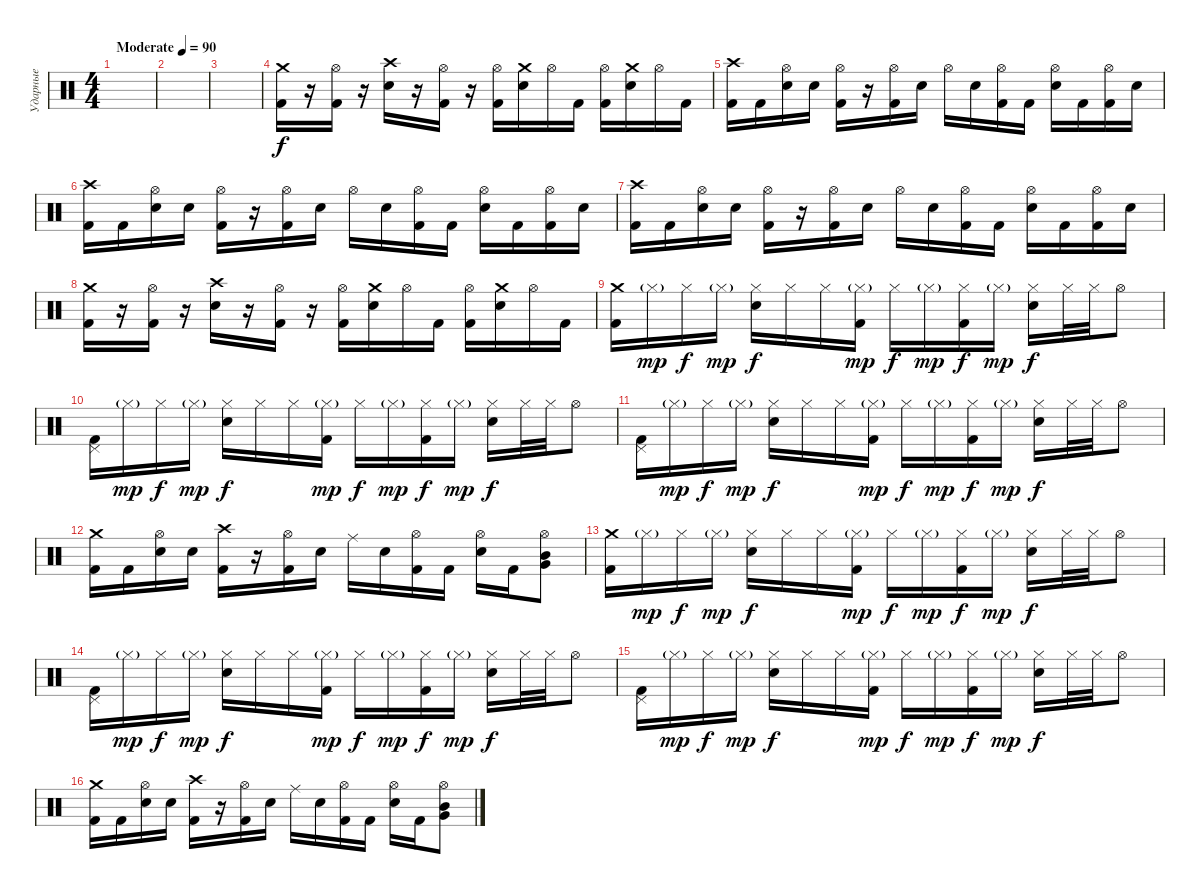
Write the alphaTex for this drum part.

\track ("Ударные" "Ударные") {instrument percussion}
\staff {score}
\articulation defaults
\ts (4 4)
\tempo (90 "Moderate")
\clef neutral
\ks c
|
|
|
("Crash medium (hit)" "Kick (hit) 2").16 r.16 ("Hi-Hat (open)" "Kick (hit) 2").16 r.16 ("Crash high (hit)" "Snare (hit) 2").16 r.16 ("Hi-Hat (open)" "Kick (hit) 2").16 r.16 ("Hi-Hat (open)" "Kick (hit) 2").16 ("Crash medium (hit)" "Snare (hit) 2").16 "Hi-Hat (open)".16 "Kick (hit) 2".16 ("Hi-Hat (open)" "Kick (hit) 2").16 ("Crash medium (hit)" "Snare (hit) 2").16 "Hi-Hat (open)".16 "Kick (hit) 2".16 |
("Crash high (hit)" "Kick (hit) 2").16 "Kick (hit) 2".16 ("Hi-Hat (open)" "Snare (hit) 2").16 "Snare (hit) 2".16 ("Hi-Hat (open)" "Kick (hit) 2").16 r.16 ("Hi-Hat (open)" "Kick (hit) 2").16 "Snare (hit) 2".16 "Hi-Hat (open)".16 "Snare (hit) 2".16 ("Hi-Hat (open)" "Kick (hit) 2").16 "Kick (hit) 2".16 ("Hi-Hat (open)" "Snare (hit) 2").16 "Kick (hit) 2".16 ("Hi-Hat (open)" "Kick (hit) 2").16 "Snare (hit) 2".16 |
("Crash high (hit)" "Kick (hit) 2").16 "Kick (hit) 2".16 ("Hi-Hat (open)" "Snare (hit) 2").16 "Snare (hit) 2".16 ("Hi-Hat (open)" "Kick (hit) 2").16 r.16 ("Hi-Hat (open)" "Kick (hit) 2").16 "Snare (hit) 2".16 "Hi-Hat (open)".16 "Snare (hit) 2".16 ("Hi-Hat (open)" "Kick (hit) 2").16 "Kick (hit) 2".16 ("Hi-Hat (open)" "Snare (hit) 2").16 "Kick (hit) 2".16 ("Hi-Hat (open)" "Kick (hit) 2").16 "Snare (hit) 2".16 |
("Crash high (hit)" "Kick (hit) 2").16 "Kick (hit) 2".16 ("Hi-Hat (open)" "Snare (hit) 2").16 "Snare (hit) 2".16 ("Hi-Hat (open)" "Kick (hit) 2").16 r.16 ("Hi-Hat (open)" "Kick (hit) 2").16 "Snare (hit) 2".16 "Hi-Hat (open)".16 "Snare (hit) 2".16 ("Hi-Hat (open)" "Kick (hit) 2").16 "Kick (hit) 2".16 ("Hi-Hat (open)" "Snare (hit) 2").16 "Kick (hit) 2".16 ("Hi-Hat (open)" "Kick (hit) 2").16 "Snare (hit) 2".16 |
("Crash medium (hit)" "Kick (hit) 2").16 r.16 ("Hi-Hat (open)" "Kick (hit) 2").16 r.16 ("Crash high (hit)" "Snare (hit) 2").16 r.16 ("Hi-Hat (open)" "Kick (hit) 2").16 r.16 ("Hi-Hat (open)" "Kick (hit) 2").16 ("Crash medium (hit)" "Snare (hit) 2").16 "Hi-Hat (open)".16 "Kick (hit) 2".16 ("Hi-Hat (open)" "Kick (hit) 2").16 ("Crash medium (hit)" "Snare (hit) 2").16 "Hi-Hat (open)".16 "Kick (hit) 2".16 |
("Crash medium (hit)" "Kick (hit) 2").16 "Hi-Hat (closed)"{g}.16{dy mp} "Hi-Hat (closed)".16{dy f} "Hi-Hat (closed)"{g}.16{dy mp} ("Hi-Hat (closed)" "Snare (hit) 2").16{dy f} "Hi-Hat (closed)".16 "Hi-Hat (closed)".16 ("Hi-Hat (closed)"{g} "Kick (hit) 2").16{dy mp} "Hi-Hat (closed)".16{dy f} "Hi-Hat (closed)"{g}.16{dy mp} ("Hi-Hat (closed)" "Kick (hit) 2").16{dy f} "Hi-Hat (closed)"{g}.16{dy mp} ("Hi-Hat (closed)" "Snare (hit) 2").16{dy f} "Hi-Hat (closed)".32 "Hi-Hat (closed)".32 "Hi-Hat (open)".8 |
("Pedal Hi-Hat (hit)" "Kick (hit) 2").16 "Hi-Hat (closed)"{g}.16{dy mp} "Hi-Hat (closed)".16{dy f} "Hi-Hat (closed)"{g}.16{dy mp} ("Hi-Hat (closed)" "Snare (hit) 2").16{dy f} "Hi-Hat (closed)".16 "Hi-Hat (closed)".16 ("Hi-Hat (closed)"{g} "Kick (hit) 2").16{dy mp} "Hi-Hat (closed)".16{dy f} "Hi-Hat (closed)"{g}.16{dy mp} ("Hi-Hat (closed)" "Kick (hit) 2").16{dy f} "Hi-Hat (closed)"{g}.16{dy mp} ("Hi-Hat (closed)" "Snare (hit) 2").16{dy f} "Hi-Hat (closed)".32 "Hi-Hat (closed)".32 "Hi-Hat (open)".8 |
("Pedal Hi-Hat (hit)" "Kick (hit) 2").16 "Hi-Hat (closed)"{g}.16{dy mp} "Hi-Hat (closed)".16{dy f} "Hi-Hat (closed)"{g}.16{dy mp} ("Hi-Hat (closed)" "Snare (hit) 2").16{dy f} "Hi-Hat (closed)".16 "Hi-Hat (closed)".16 ("Hi-Hat (closed)"{g} "Kick (hit) 2").16{dy mp} "Hi-Hat (closed)".16{dy f} "Hi-Hat (closed)"{g}.16{dy mp} ("Hi-Hat (closed)" "Kick (hit) 2").16{dy f} "Hi-Hat (closed)"{g}.16{dy mp} ("Hi-Hat (closed)" "Snare (hit) 2").16{dy f} "Hi-Hat (closed)".32 "Hi-Hat (closed)".32 "Hi-Hat (open)".8 |
("Crash medium (hit)" "Kick (hit) 2").16 "Kick (hit) 2".16 ("Hi-Hat (open)" "Snare (hit) 2").16 "Snare (hit) 2".16 ("Crash high (hit)" "Kick (hit) 2").16 r.16 ("Hi-Hat (open)" "Kick (hit) 2").16 "Snare (hit) 2".16 "Ride (middle)".16 "Snare (hit) 2".16 ("Hi-Hat (open)" "Kick (hit) 2").16 "Kick (hit) 2".16 ("Hi-Hat (open)" "Snare (hit) 2").16 "Kick (hit) 2".16 ("Hi-Hat (open)" "Very Low Tom (hit)" "Mid Tom (hit)").8 |
("Crash medium (hit)" "Kick (hit) 2").16 "Hi-Hat (closed)"{g}.16{dy mp} "Hi-Hat (closed)".16{dy f} "Hi-Hat (closed)"{g}.16{dy mp} ("Hi-Hat (closed)" "Snare (hit) 2").16{dy f} "Hi-Hat (closed)".16 "Hi-Hat (closed)".16 ("Hi-Hat (closed)"{g} "Kick (hit) 2").16{dy mp} "Hi-Hat (closed)".16{dy f} "Hi-Hat (closed)"{g}.16{dy mp} ("Hi-Hat (closed)" "Kick (hit) 2").16{dy f} "Hi-Hat (closed)"{g}.16{dy mp} ("Hi-Hat (closed)" "Snare (hit) 2").16{dy f} "Hi-Hat (closed)".32 "Hi-Hat (closed)".32 "Hi-Hat (open)".8 |
("Pedal Hi-Hat (hit)" "Kick (hit) 2").16 "Hi-Hat (closed)"{g}.16{dy mp} "Hi-Hat (closed)".16{dy f} "Hi-Hat (closed)"{g}.16{dy mp} ("Hi-Hat (closed)" "Snare (hit) 2").16{dy f} "Hi-Hat (closed)".16 "Hi-Hat (closed)".16 ("Hi-Hat (closed)"{g} "Kick (hit) 2").16{dy mp} "Hi-Hat (closed)".16{dy f} "Hi-Hat (closed)"{g}.16{dy mp} ("Hi-Hat (closed)" "Kick (hit) 2").16{dy f} "Hi-Hat (closed)"{g}.16{dy mp} ("Hi-Hat (closed)" "Snare (hit) 2").16{dy f} "Hi-Hat (closed)".32 "Hi-Hat (closed)".32 "Hi-Hat (open)".8 |
("Pedal Hi-Hat (hit)" "Kick (hit) 2").16 "Hi-Hat (closed)"{g}.16{dy mp} "Hi-Hat (closed)".16{dy f} "Hi-Hat (closed)"{g}.16{dy mp} ("Hi-Hat (closed)" "Snare (hit) 2").16{dy f} "Hi-Hat (closed)".16 "Hi-Hat (closed)".16 ("Hi-Hat (closed)"{g} "Kick (hit) 2").16{dy mp} "Hi-Hat (closed)".16{dy f} "Hi-Hat (closed)"{g}.16{dy mp} ("Hi-Hat (closed)" "Kick (hit) 2").16{dy f} "Hi-Hat (closed)"{g}.16{dy mp} ("Hi-Hat (closed)" "Snare (hit) 2").16{dy f} "Hi-Hat (closed)".32 "Hi-Hat (closed)".32 "Hi-Hat (open)".8 |
("Crash medium (hit)" "Kick (hit) 2").16 "Kick (hit) 2".16 ("Hi-Hat (open)" "Snare (hit) 2").16 "Snare (hit) 2".16 ("Crash high (hit)" "Kick (hit) 2").16 r.16 ("Hi-Hat (open)" "Kick (hit) 2").16 "Snare (hit) 2".16 "Ride (middle)".16 "Snare (hit) 2".16 ("Hi-Hat (open)" "Kick (hit) 2").16 "Kick (hit) 2".16 ("Hi-Hat (open)" "Snare (hit) 2").16 "Kick (hit) 2".16 ("Hi-Hat (open)" "Very Low Tom (hit)" "Mid Tom (hit)").8
